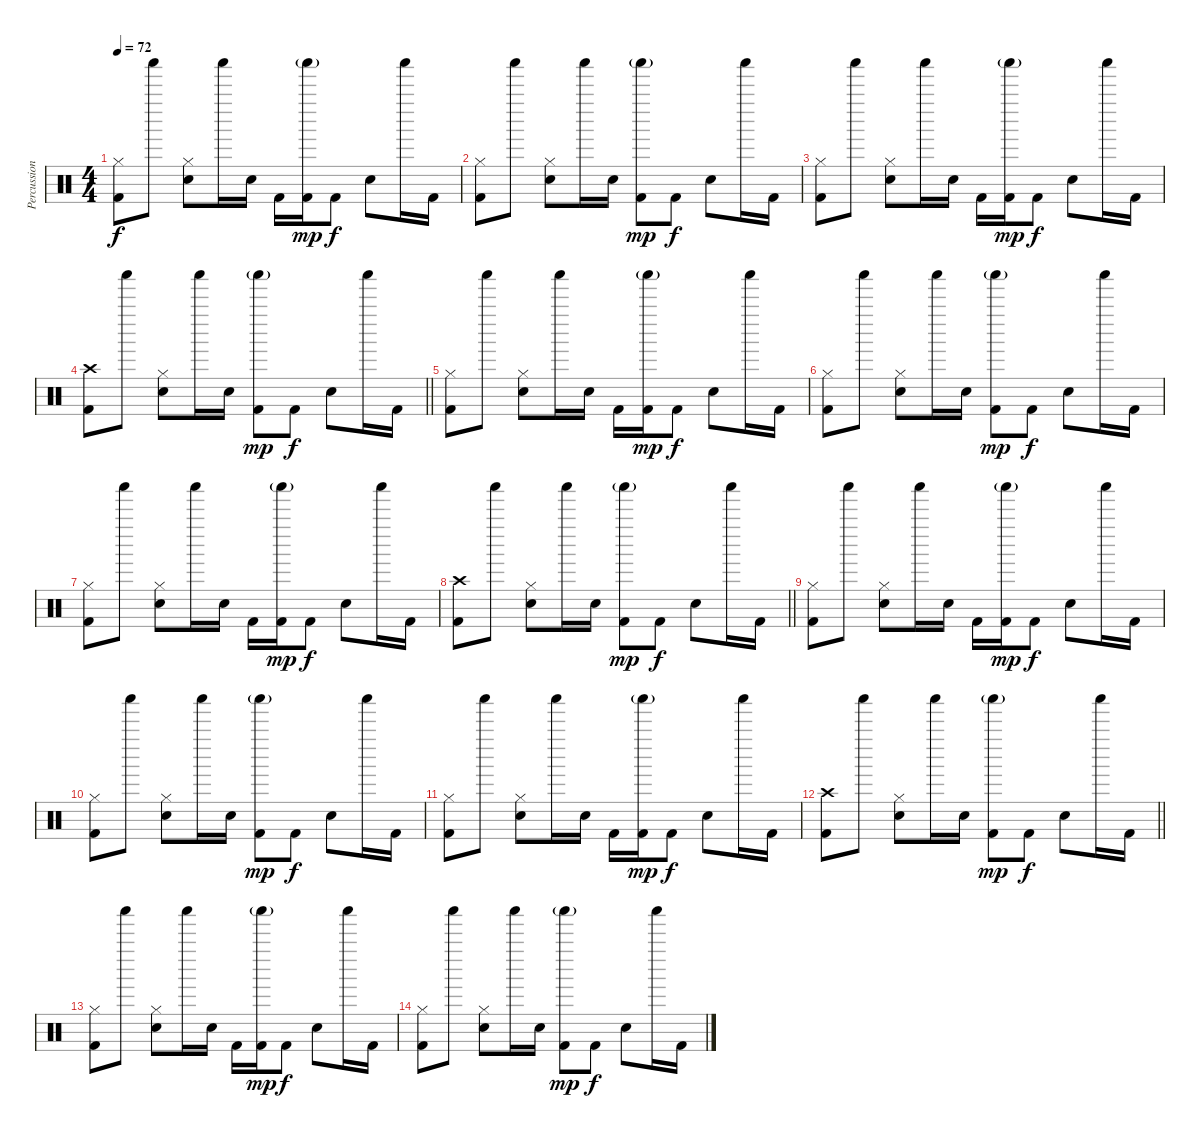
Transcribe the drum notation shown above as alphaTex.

\track ("Percussion" "Percussion") {instrument percussion bank 126}
\staff {score}
\articulation defaults
\ts (4 4)
\tempo 72
\clef neutral
\ks c
("Hi-Hat (closed)" "Kick (hit) 2").8{dy f} "Shaker (hit)".8 ("Hi-Hat (closed)" "Electric Snare (hit)").8 "Shaker (hit)".16 "Electric Snare (hit)".16 "Kick (hit) 2".16 ("Kick (hit) 2" "Shaker (hit)"{g}).16{dy mp} "Kick (hit) 2".8{dy f} "Electric Snare (hit)".8 "Shaker (hit)".16 "Kick (hit) 2".16 |
("Kick (hit) 2" "Hi-Hat (closed)").8 "Shaker (hit)".8 ("Hi-Hat (closed)" "Electric Snare (hit)").8 "Shaker (hit)".16 "Electric Snare (hit)".16 ("Kick (hit) 2" "Shaker (hit)"{g}).8{dy mp} "Kick (hit) 2".8{dy f} "Electric Snare (hit)".8 "Shaker (hit)".16 "Kick (hit) 2".16 |
("Hi-Hat (closed)" "Kick (hit) 2").8 "Shaker (hit)".8 ("Hi-Hat (closed)" "Electric Snare (hit)").8 "Shaker (hit)".16 "Electric Snare (hit)".16 "Kick (hit) 2".16 ("Kick (hit) 2" "Shaker (hit)"{g}).16{dy mp} "Kick (hit) 2".8{dy f} "Electric Snare (hit)".8 "Shaker (hit)".16 "Kick (hit) 2".16 |
\barLineRight lightlight
("Kick (hit) 2" "Crash high (hit)").8 "Shaker (hit)".8 ("Hi-Hat (closed)" "Electric Snare (hit)").8 "Shaker (hit)".16 "Electric Snare (hit)".16 ("Kick (hit) 2" "Shaker (hit)"{g}).8{dy mp} "Kick (hit) 2".8{dy f} "Electric Snare (hit)".8 "Shaker (hit)".16 "Kick (hit) 2".16 |
("Hi-Hat (closed)" "Kick (hit) 2").8 "Shaker (hit)".8 ("Hi-Hat (closed)" "Electric Snare (hit)").8 "Shaker (hit)".16 "Electric Snare (hit)".16 "Kick (hit) 2".16 ("Kick (hit) 2" "Shaker (hit)"{g}).16{dy mp} "Kick (hit) 2".8{dy f} "Electric Snare (hit)".8 "Shaker (hit)".16 "Kick (hit) 2".16 |
("Kick (hit) 2" "Hi-Hat (closed)").8{volume 6} "Shaker (hit)".8 ("Hi-Hat (closed)" "Electric Snare (hit)").8 "Shaker (hit)".16 "Electric Snare (hit)".16 ("Kick (hit) 2" "Shaker (hit)"{g}).8{dy mp} "Kick (hit) 2".8{dy f} "Electric Snare (hit)".8 "Shaker (hit)".16 "Kick (hit) 2".16 |
("Hi-Hat (closed)" "Kick (hit) 2").8 "Shaker (hit)".8 ("Hi-Hat (closed)" "Electric Snare (hit)").8 "Shaker (hit)".16 "Electric Snare (hit)".16 "Kick (hit) 2".16 ("Kick (hit) 2" "Shaker (hit)"{g}).16{dy mp} "Kick (hit) 2".8{dy f} "Electric Snare (hit)".8 "Shaker (hit)".16 "Kick (hit) 2".16 |
\barLineRight lightlight
("Kick (hit) 2" "Crash high (hit)").8 "Shaker (hit)".8 ("Hi-Hat (closed)" "Electric Snare (hit)").8 "Shaker (hit)".16 "Electric Snare (hit)".16 ("Kick (hit) 2" "Shaker (hit)"{g}).8{dy mp} "Kick (hit) 2".8{dy f} "Electric Snare (hit)".8 "Shaker (hit)".16 "Kick (hit) 2".16 |
("Hi-Hat (closed)" "Kick (hit) 2").8 "Shaker (hit)".8 ("Hi-Hat (closed)" "Electric Snare (hit)").8 "Shaker (hit)".16 "Electric Snare (hit)".16 "Kick (hit) 2".16 ("Kick (hit) 2" "Shaker (hit)"{g}).16{dy mp} "Kick (hit) 2".8{dy f} "Electric Snare (hit)".8 "Shaker (hit)".16 "Kick (hit) 2".16 |
("Kick (hit) 2" "Hi-Hat (closed)").8 "Shaker (hit)".8 ("Hi-Hat (closed)" "Electric Snare (hit)").8 "Shaker (hit)".16 "Electric Snare (hit)".16 ("Kick (hit) 2" "Shaker (hit)"{g}).8{dy mp} "Kick (hit) 2".8{dy f} "Electric Snare (hit)".8 "Shaker (hit)".16 "Kick (hit) 2".16 |
("Hi-Hat (closed)" "Kick (hit) 2").8 "Shaker (hit)".8 ("Hi-Hat (closed)" "Electric Snare (hit)").8 "Shaker (hit)".16 "Electric Snare (hit)".16 "Kick (hit) 2".16 ("Kick (hit) 2" "Shaker (hit)"{g}).16{dy mp} "Kick (hit) 2".8{dy f} "Electric Snare (hit)".8 "Shaker (hit)".16 "Kick (hit) 2".16 |
\barLineRight lightlight
("Kick (hit) 2" "Crash high (hit)").8 "Shaker (hit)".8 ("Hi-Hat (closed)" "Electric Snare (hit)").8 "Shaker (hit)".16 "Electric Snare (hit)".16 ("Kick (hit) 2" "Shaker (hit)"{g}).8{dy mp} "Kick (hit) 2".8{dy f} "Electric Snare (hit)".8 "Shaker (hit)".16 "Kick (hit) 2".16 |
("Hi-Hat (closed)" "Kick (hit) 2").8 "Shaker (hit)".8 ("Hi-Hat (closed)" "Electric Snare (hit)").8 "Shaker (hit)".16 "Electric Snare (hit)".16 "Kick (hit) 2".16 ("Kick (hit) 2" "Shaker (hit)"{g}).16{dy mp} "Kick (hit) 2".8{dy f} "Electric Snare (hit)".8 "Shaker (hit)".16 "Kick (hit) 2".16 |
("Kick (hit) 2" "Hi-Hat (closed)").8 "Shaker (hit)".8 ("Hi-Hat (closed)" "Electric Snare (hit)").8 "Shaker (hit)".16 "Electric Snare (hit)".16 ("Kick (hit) 2" "Shaker (hit)"{g}).8{dy mp} "Kick (hit) 2".8{dy f} "Electric Snare (hit)".8 "Shaker (hit)".16 "Kick (hit) 2".16
